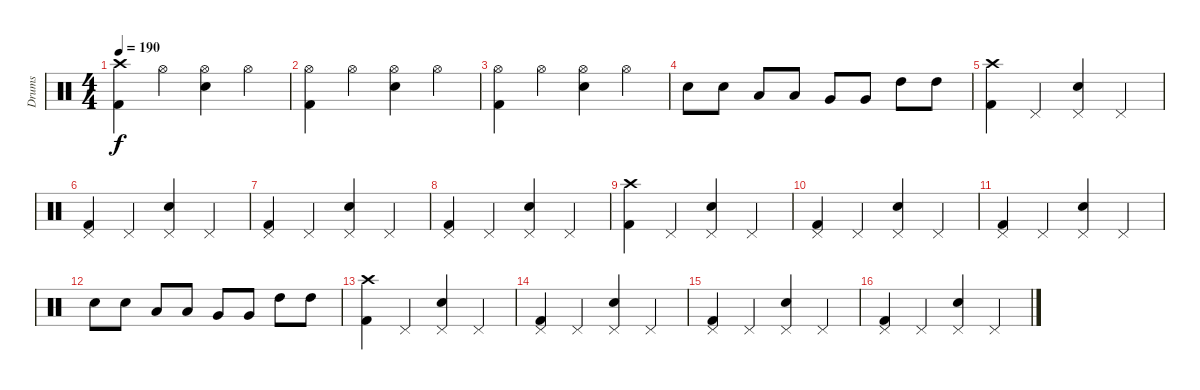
\track ("Drums" "Drums") {instrument percussion}
\staff {score}
\articulation defaults
\ts (4 4)
\tempo 190
\clef neutral
\ks c
("Crash high (hit)" "Kick (hit) 2").4{dy f} "Hi-Hat (open)".4 ("Hi-Hat (open)" "Electric Snare (hit)").4 "Hi-Hat (open)".4 |
("Hi-Hat (open)" "Kick (hit) 2").4 "Hi-Hat (open)".4 ("Hi-Hat (open)" "Electric Snare (hit)").4 "Hi-Hat (open)".4 |
("Hi-Hat (open)" "Kick (hit) 2").4 "Hi-Hat (open)".4 ("Hi-Hat (open)" "Electric Snare (hit)").4 "Hi-Hat (open)".4 |
"Electric Snare (hit)".8 "Electric Snare (hit)".8 "Low Tom (hit)".8 "Low Tom (hit)".8 "Very Low Tom (hit)".8 "Very Low Tom (hit)".8 "High Tom (hit)".8 "High Tom (hit)".8 |
("Crash high (hit)" "Kick (hit) 2").4 "Pedal Hi-Hat (hit)".4 ("Pedal Hi-Hat (hit)" "Electric Snare (hit)").4 "Pedal Hi-Hat (hit)".4 |
("Pedal Hi-Hat (hit)" "Kick (hit) 2").4 "Pedal Hi-Hat (hit)".4 ("Pedal Hi-Hat (hit)" "Electric Snare (hit)").4 "Pedal Hi-Hat (hit)".4 |
("Pedal Hi-Hat (hit)" "Kick (hit) 2").4 "Pedal Hi-Hat (hit)".4 ("Pedal Hi-Hat (hit)" "Electric Snare (hit)").4 "Pedal Hi-Hat (hit)".4 |
("Pedal Hi-Hat (hit)" "Kick (hit) 2").4 "Pedal Hi-Hat (hit)".4 ("Pedal Hi-Hat (hit)" "Electric Snare (hit)").4 "Pedal Hi-Hat (hit)".4 |
("Crash high (hit)" "Kick (hit) 2").4 "Pedal Hi-Hat (hit)".4 ("Pedal Hi-Hat (hit)" "Electric Snare (hit)").4 "Pedal Hi-Hat (hit)".4 |
("Pedal Hi-Hat (hit)" "Kick (hit) 2").4 "Pedal Hi-Hat (hit)".4 ("Pedal Hi-Hat (hit)" "Electric Snare (hit)").4 "Pedal Hi-Hat (hit)".4 |
("Pedal Hi-Hat (hit)" "Kick (hit) 2").4 "Pedal Hi-Hat (hit)".4 ("Pedal Hi-Hat (hit)" "Electric Snare (hit)").4 "Pedal Hi-Hat (hit)".4 |
"Electric Snare (hit)".8 "Electric Snare (hit)".8 "Low Tom (hit)".8 "Low Tom (hit)".8 "Very Low Tom (hit)".8 "Very Low Tom (hit)".8 "High Tom (hit)".8 "High Tom (hit)".8 |
("Crash high (hit)" "Kick (hit) 2").4 "Pedal Hi-Hat (hit)".4 ("Pedal Hi-Hat (hit)" "Electric Snare (hit)").4 "Pedal Hi-Hat (hit)".4 |
("Pedal Hi-Hat (hit)" "Kick (hit) 2").4 "Pedal Hi-Hat (hit)".4 ("Pedal Hi-Hat (hit)" "Electric Snare (hit)").4 "Pedal Hi-Hat (hit)".4 |
("Pedal Hi-Hat (hit)" "Kick (hit) 2").4 "Pedal Hi-Hat (hit)".4 ("Pedal Hi-Hat (hit)" "Electric Snare (hit)").4 "Pedal Hi-Hat (hit)".4 |
("Pedal Hi-Hat (hit)" "Kick (hit) 2").4 "Pedal Hi-Hat (hit)".4 ("Pedal Hi-Hat (hit)" "Electric Snare (hit)").4 "Pedal Hi-Hat (hit)".4
